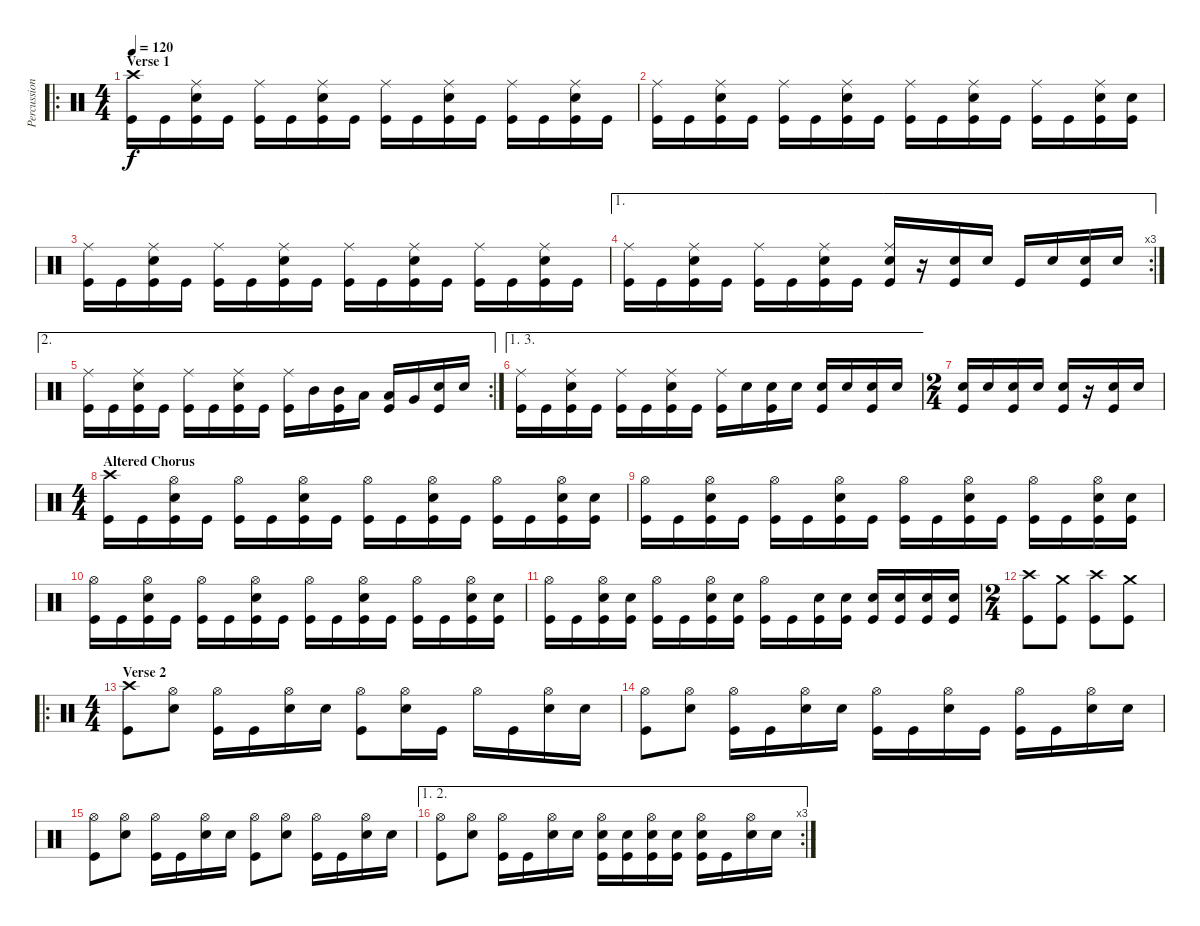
\track ("Percussion" "Percussion") {instrument percussion}
\staff {score}
\articulation defaults
\ro
\ts (4 4)
\section ("" "Verse 1")
\tempo 120
\clef neutral
\ks c
("Crash high (hit)" "Kick (hit)").16{dy f} "Kick (hit)".16 ("Ride (middle)" "Snare (hit) 2" "Kick (hit)").16 "Kick (hit)".16 ("Ride (middle)" "Kick (hit)").16 "Kick (hit)".16 ("Ride (middle)" "Snare (hit) 2" "Kick (hit)").16 "Kick (hit)".16 ("Ride (middle)" "Kick (hit)").16 "Kick (hit)".16 ("Ride (middle)" "Snare (hit) 2" "Kick (hit)").16 "Kick (hit)".16 ("Ride (middle)" "Kick (hit)").16 "Kick (hit)".16 ("Ride (middle)" "Snare (hit) 2" "Kick (hit)").16 "Kick (hit)".16 |
("Ride (middle)" "Kick (hit)").16 "Kick (hit)".16 ("Ride (middle)" "Snare (hit) 2" "Kick (hit)").16 "Kick (hit)".16 ("Ride (middle)" "Kick (hit)").16 "Kick (hit)".16 ("Ride (middle)" "Snare (hit) 2" "Kick (hit)").16 "Kick (hit)".16 ("Ride (middle)" "Kick (hit)").16 "Kick (hit)".16 ("Ride (middle)" "Snare (hit) 2" "Kick (hit)").16 "Kick (hit)".16 ("Ride (middle)" "Kick (hit)").16 "Kick (hit)".16 ("Ride (middle)" "Snare (hit) 2" "Kick (hit)").16 ("Snare (hit) 2" "Kick (hit)").16 |
("Ride (middle)" "Kick (hit)").16 "Kick (hit)".16 ("Ride (middle)" "Snare (hit) 2" "Kick (hit)").16 "Kick (hit)".16 ("Ride (middle)" "Kick (hit)").16 "Kick (hit)".16 ("Ride (middle)" "Snare (hit) 2" "Kick (hit)").16 "Kick (hit)".16 ("Ride (middle)" "Kick (hit)").16 "Kick (hit)".16 ("Ride (middle)" "Snare (hit) 2" "Kick (hit)").16 "Kick (hit)".16 ("Ride (middle)" "Kick (hit)").16 "Kick (hit)".16 ("Ride (middle)" "Snare (hit) 2" "Kick (hit)").16 "Kick (hit)".16 |
\ae 1
\rc 3
("Ride (middle)" "Kick (hit)").16 "Kick (hit)".16 ("Ride (middle)" "Snare (hit) 2" "Kick (hit)").16 "Kick (hit)".16 ("Ride (middle)" "Kick (hit)").16 "Kick (hit)".16 ("Ride (middle)" "Snare (hit) 2" "Kick (hit)").16 "Kick (hit)".16 ("Ride (middle)" "Snare (hit) 2" "Kick (hit)").16 r.16 ("Snare (hit) 2" "Kick (hit)").16 "Snare (hit) 2".16 "Kick (hit)".16 "Snare (hit) 2".16 ("Snare (hit) 2" "Kick (hit)").16 "Snare (hit) 2".16 |
\ae 2
\rc 2
("Ride (middle)" "Kick (hit)").16 "Kick (hit)".16 ("Ride (middle)" "Snare (hit) 2" "Kick (hit)").16 "Kick (hit)".16 ("Ride (middle)" "Kick (hit)").16 "Kick (hit)".16 ("Ride (middle)" "Snare (hit) 2" "Kick (hit)").16 "Kick (hit)".16 ("Ride (middle)" "Kick (hit)").16 "Mid Tom (hit)".16 ("Mid Tom (hit)" "Kick (hit)").16 "Low Tom (hit)".16 ("Low Tom (hit)" "Kick (hit)").16 "Very Low Tom (hit)".16 ("Snare (hit) 2" "Kick (hit)").16 "Snare (hit) 2".16 |
\ae (1 3)
("Ride (middle)" "Kick (hit)").16 "Kick (hit)".16 ("Ride (middle)" "Snare (hit) 2" "Kick (hit)").16 "Kick (hit)".16 ("Ride (middle)" "Kick (hit)").16 "Kick (hit)".16 ("Ride (middle)" "Snare (hit) 2" "Kick (hit)").16 "Kick (hit)".16 ("Ride (middle)" "Kick (hit)").16 "Snare (hit) 2".16 ("Snare (hit) 2" "Kick (hit)").16 "Snare (hit) 2".16 ("Snare (hit) 2" "Kick (hit)").16 "Snare (hit) 2".16 ("Snare (hit) 2" "Kick (hit)").16 "Snare (hit) 2".16 |
\ts (2 4)
("Snare (hit) 2" "Kick (hit)").16 "Snare (hit) 2".16 ("Snare (hit) 2" "Kick (hit)").16 "Snare (hit) 2".16 ("Snare (hit) 2" "Kick (hit)").16 r.16 ("Snare (hit) 2" "Kick (hit)").16 "Snare (hit) 2".16 |
\ts (4 4)
\section ("" "Altered Chorus")
("Crash high (hit)" "Kick (hit)").16 "Kick (hit)".16 ("Hi-Hat (open)" "Snare (hit) 2" "Kick (hit)").16 "Kick (hit)".16 ("Hi-Hat (open)" "Kick (hit)").16 "Kick (hit)".16 ("Hi-Hat (open)" "Snare (hit) 2" "Kick (hit)").16 "Kick (hit)".16 ("Hi-Hat (open)" "Kick (hit)").16 "Kick (hit)".16 ("Hi-Hat (open)" "Snare (hit) 2" "Kick (hit)").16 "Kick (hit)".16 ("Hi-Hat (open)" "Kick (hit)").16 "Kick (hit)".16 ("Hi-Hat (open)" "Snare (hit) 2" "Kick (hit)").16 ("Snare (hit) 2" "Kick (hit)").16 |
("Hi-Hat (open)" "Kick (hit)").16 "Kick (hit)".16 ("Hi-Hat (open)" "Snare (hit) 2" "Kick (hit)").16 "Kick (hit)".16 ("Hi-Hat (open)" "Kick (hit)").16 "Kick (hit)".16 ("Hi-Hat (open)" "Snare (hit) 2" "Kick (hit)").16 "Kick (hit)".16 ("Hi-Hat (open)" "Kick (hit)").16 "Kick (hit)".16 ("Hi-Hat (open)" "Snare (hit) 2" "Kick (hit)").16 "Kick (hit)".16 ("Hi-Hat (open)" "Kick (hit)").16 "Kick (hit)".16 ("Hi-Hat (open)" "Snare (hit) 2" "Kick (hit)").16 ("Snare (hit) 2" "Kick (hit)").16 |
("Hi-Hat (open)" "Kick (hit)").16 "Kick (hit)".16 ("Hi-Hat (open)" "Snare (hit) 2" "Kick (hit)").16 "Kick (hit)".16 ("Hi-Hat (open)" "Kick (hit)").16 "Kick (hit)".16 ("Hi-Hat (open)" "Snare (hit) 2" "Kick (hit)").16 "Kick (hit)".16 ("Hi-Hat (open)" "Kick (hit)").16 "Kick (hit)".16 ("Hi-Hat (open)" "Snare (hit) 2" "Kick (hit)").16 "Kick (hit)".16 ("Hi-Hat (open)" "Kick (hit)").16 "Kick (hit)".16 ("Hi-Hat (open)" "Snare (hit) 2" "Kick (hit)").16 ("Snare (hit) 2" "Kick (hit)").16 |
("Hi-Hat (open)" "Kick (hit)").16 "Kick (hit)".16 ("Hi-Hat (open)" "Snare (hit) 2" "Kick (hit)").16 ("Snare (hit) 2" "Kick (hit)").16 ("Hi-Hat (open)" "Kick (hit)").16 "Kick (hit)".16 ("Hi-Hat (open)" "Snare (hit) 2" "Kick (hit)").16 ("Snare (hit) 2" "Kick (hit)").16 ("Hi-Hat (open)" "Kick (hit)").16 "Kick (hit)".16 ("Snare (hit) 2" "Kick (hit)").16 ("Snare (hit) 2" "Kick (hit)").16 ("Snare (hit) 2" "Kick (hit)").16 ("Snare (hit) 2" "Kick (hit)").16 ("Snare (hit) 2" "Kick (hit)").16 ("Snare (hit) 2" "Kick (hit)").16 |
\ts (2 4)
("Crash high (hit)" "Kick (hit)").8 ("Crash medium (hit)" "Kick (hit)").8 ("Crash high (hit)" "Kick (hit)").8 ("Crash medium (hit)" "Kick (hit)").8 |
\ro
\ts (4 4)
\section ("" "Verse 2")
("Crash high (hit)" "Kick (hit)").8 ("Hi-Hat (open)" "Snare (hit) 2").8 ("Hi-Hat (open)" "Kick (hit)").16 "Kick (hit)".16 ("Hi-Hat (open)" "Snare (hit) 2").16 "Snare (hit) 2".16 ("Hi-Hat (open)" "Kick (hit)").8 ("Hi-Hat (open)" "Snare (hit) 2").16 "Kick (hit)".16 "Hi-Hat (open)".16 "Kick (hit)".16 ("Hi-Hat (open)" "Snare (hit) 2").16 "Snare (hit) 2".16 |
("Hi-Hat (open)" "Kick (hit)").8 ("Hi-Hat (open)" "Snare (hit) 2").8 ("Hi-Hat (open)" "Kick (hit)").16 "Kick (hit)".16 ("Hi-Hat (open)" "Snare (hit) 2").16 "Snare (hit) 2".16 ("Hi-Hat (open)" "Kick (hit)").16 "Kick (hit)".16 ("Hi-Hat (open)" "Snare (hit) 2").16 "Kick (hit)".16 ("Hi-Hat (open)" "Kick (hit)").16 "Kick (hit)".16 ("Hi-Hat (open)" "Snare (hit) 2").16 "Snare (hit) 2".16 |
("Hi-Hat (open)" "Kick (hit)").8 ("Hi-Hat (open)" "Snare (hit) 2").8 ("Hi-Hat (open)" "Kick (hit)").16 "Kick (hit)".16 ("Hi-Hat (open)" "Snare (hit) 2").16 "Snare (hit) 2".16 ("Hi-Hat (open)" "Kick (hit)").8 ("Hi-Hat (open)" "Snare (hit) 2").8 ("Hi-Hat (open)" "Kick (hit)").16 "Kick (hit)".16 ("Hi-Hat (open)" "Snare (hit) 2").16 "Snare (hit) 2".16 |
\ae (1 2)
\rc 3
("Hi-Hat (open)" "Kick (hit)").8 ("Hi-Hat (open)" "Snare (hit) 2").8 ("Hi-Hat (open)" "Kick (hit)").16 "Kick (hit)".16 ("Hi-Hat (open)" "Snare (hit) 2").16 "Snare (hit) 2".16 ("Hi-Hat (open)" "Snare (hit) 2" "Kick (hit)").16 ("Snare (hit) 2" "Kick (hit)").16 ("Hi-Hat (open)" "Snare (hit) 2" "Kick (hit)").16 ("Snare (hit) 2" "Kick (hit)").16 ("Hi-Hat (open)" "Snare (hit) 2" "Kick (hit)").16 "Kick (hit)".16 ("Hi-Hat (open)" "Snare (hit) 2").16 "Snare (hit) 2".16
